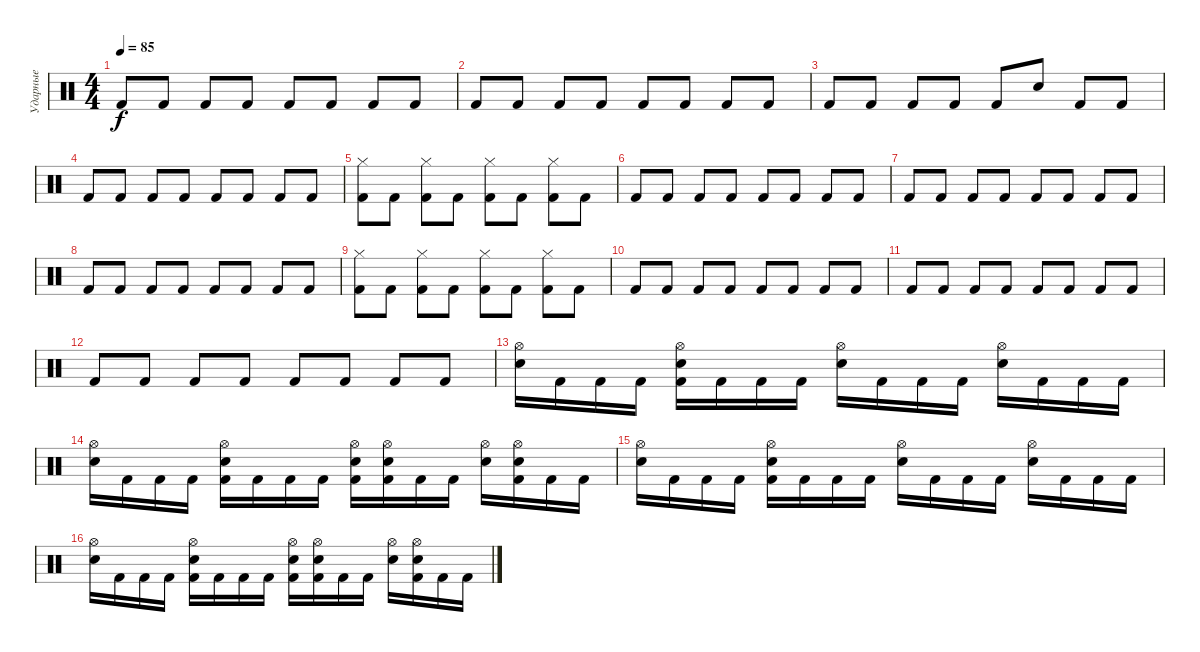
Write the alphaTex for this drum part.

\track ("Ударные" "Ударные") {instrument percussion}
\staff {score}
\articulation defaults
\ts (4 4)
\tempo 85
\clef neutral
\ks c "Kick (hit) 2".8{dy f} "Kick (hit) 2".8 "Kick (hit) 2".8 "Kick (hit) 2".8 "Kick (hit) 2".8 "Kick (hit) 2".8 "Kick (hit) 2".8 "Kick (hit) 2".8
|
"Kick (hit) 2".8 "Kick (hit) 2".8 "Kick (hit) 2".8 "Kick (hit) 2".8 "Kick (hit) 2".8 "Kick (hit) 2".8 "Kick (hit) 2".8 "Kick (hit) 2".8 |
"Kick (hit) 2".8 "Kick (hit) 2".8 "Kick (hit) 2".8 "Kick (hit) 2".8 "Kick (hit) 2".8 "Electric Snare (hit)".8 "Kick (hit) 2".8 "Kick (hit) 2".8 |
"Kick (hit) 2".8 "Kick (hit) 2".8 "Kick (hit) 2".8 "Kick (hit) 2".8 "Kick (hit) 2".8 "Kick (hit) 2".8 "Kick (hit) 2".8 "Kick (hit) 2".8 |
("Hi-Hat (closed)" "Kick (hit) 2").8 "Kick (hit) 2".8 ("Hi-Hat (closed)" "Kick (hit) 2").8 "Kick (hit) 2".8 ("Hi-Hat (closed)" "Kick (hit) 2").8 "Kick (hit) 2".8 ("Hi-Hat (closed)" "Kick (hit) 2").8 "Kick (hit) 2".8 |
"Kick (hit) 2".8 "Kick (hit) 2".8 "Kick (hit) 2".8 "Kick (hit) 2".8 "Kick (hit) 2".8 "Kick (hit) 2".8 "Kick (hit) 2".8 "Kick (hit) 2".8 |
"Kick (hit) 2".8 "Kick (hit) 2".8 "Kick (hit) 2".8 "Kick (hit) 2".8 "Kick (hit) 2".8 "Kick (hit) 2".8 "Kick (hit) 2".8 "Kick (hit) 2".8 |
"Kick (hit) 2".8 "Kick (hit) 2".8 "Kick (hit) 2".8 "Kick (hit) 2".8 "Kick (hit) 2".8 "Kick (hit) 2".8 "Kick (hit) 2".8 "Kick (hit) 2".8 |
("Hi-Hat (closed)" "Kick (hit) 2").8 "Kick (hit) 2".8 ("Hi-Hat (closed)" "Kick (hit) 2").8 "Kick (hit) 2".8 ("Hi-Hat (closed)" "Kick (hit) 2").8 "Kick (hit) 2".8 ("Hi-Hat (closed)" "Kick (hit) 2").8 "Kick (hit) 2".8 |
"Kick (hit) 2".8 "Kick (hit) 2".8 "Kick (hit) 2".8 "Kick (hit) 2".8 "Kick (hit) 2".8 "Kick (hit) 2".8 "Kick (hit) 2".8 "Kick (hit) 2".8 |
"Kick (hit) 2".8 "Kick (hit) 2".8 "Kick (hit) 2".8 "Kick (hit) 2".8 "Kick (hit) 2".8 "Kick (hit) 2".8 "Kick (hit) 2".8 "Kick (hit) 2".8 |
"Kick (hit) 2".8 "Kick (hit) 2".8 "Kick (hit) 2".8 "Kick (hit) 2".8 "Kick (hit) 2".8 "Kick (hit) 2".8 "Kick (hit) 2".8 "Kick (hit) 2".8 |
("Hi-Hat (open)" "Electric Snare (hit)").16 "Kick (hit) 2".16 "Kick (hit) 2".16 "Kick (hit) 2".16 ("Hi-Hat (open)" "Electric Snare (hit)" "Kick (hit) 2").16 "Kick (hit) 2".16 "Kick (hit) 2".16 "Kick (hit) 2".16 ("Hi-Hat (open)" "Electric Snare (hit)").16 "Kick (hit) 2".16 "Kick (hit) 2".16 "Kick (hit) 2".16 ("Hi-Hat (open)" "Electric Snare (hit)").16 "Kick (hit) 2".16 "Kick (hit) 2".16 "Kick (hit) 2".16 |
("Hi-Hat (open)" "Electric Snare (hit)").16 "Kick (hit) 2".16 "Kick (hit) 2".16 "Kick (hit) 2".16 ("Hi-Hat (open)" "Electric Snare (hit)" "Kick (hit) 2").16 "Kick (hit) 2".16 "Kick (hit) 2".16 "Kick (hit) 2".16 ("Hi-Hat (open)" "Electric Snare (hit)" "Kick (hit) 2").16 ("Hi-Hat (open)" "Electric Snare (hit)" "Kick (hit) 2").16 "Kick (hit) 2".16 "Kick (hit) 2".16 ("Hi-Hat (open)" "Electric Snare (hit)").16 ("Hi-Hat (open)" "Electric Snare (hit)" "Kick (hit) 2").16 "Kick (hit) 2".16 "Kick (hit) 2".16 |
("Hi-Hat (open)" "Electric Snare (hit)").16 "Kick (hit) 2".16 "Kick (hit) 2".16 "Kick (hit) 2".16 ("Hi-Hat (open)" "Electric Snare (hit)" "Kick (hit) 2").16 "Kick (hit) 2".16 "Kick (hit) 2".16 "Kick (hit) 2".16 ("Hi-Hat (open)" "Electric Snare (hit)").16 "Kick (hit) 2".16 "Kick (hit) 2".16 "Kick (hit) 2".16 ("Hi-Hat (open)" "Electric Snare (hit)").16 "Kick (hit) 2".16 "Kick (hit) 2".16 "Kick (hit) 2".16 |
("Hi-Hat (open)" "Electric Snare (hit)").16 "Kick (hit) 2".16 "Kick (hit) 2".16 "Kick (hit) 2".16 ("Hi-Hat (open)" "Electric Snare (hit)" "Kick (hit) 2").16 "Kick (hit) 2".16 "Kick (hit) 2".16 "Kick (hit) 2".16 ("Hi-Hat (open)" "Electric Snare (hit)" "Kick (hit) 2").16 ("Hi-Hat (open)" "Electric Snare (hit)" "Kick (hit) 2").16 "Kick (hit) 2".16 "Kick (hit) 2".16 ("Hi-Hat (open)" "Electric Snare (hit)").16 ("Hi-Hat (open)" "Electric Snare (hit)" "Kick (hit) 2").16 "Kick (hit) 2".16 "Kick (hit) 2".16
